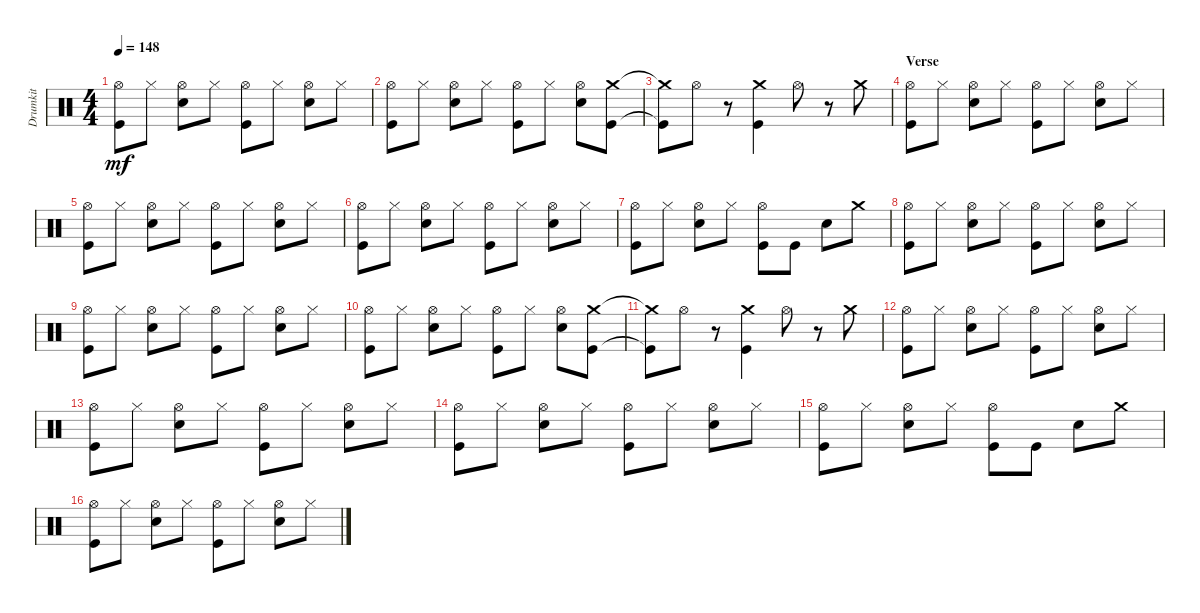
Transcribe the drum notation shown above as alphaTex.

\track ("Drumkit" "Drumkit") {instrument percussion}
\staff {score}
\articulation defaults
\ts (4 4)
\tempo 148
\clef neutral
\ks c
("Kick (hit)" "Hi-Hat (open)").8{dy mf} "Hi-Hat (closed)".8 ("Snare (hit) 2" "Hi-Hat (open)").8 "Hi-Hat (closed)".8 ("Kick (hit)" "Hi-Hat (open)").8 "Hi-Hat (closed)".8 ("Snare (hit) 2" "Hi-Hat (open)").8 "Hi-Hat (closed)".8 |
("Kick (hit)" "Hi-Hat (open)").8 "Hi-Hat (closed)".8 ("Snare (hit) 2" "Hi-Hat (open)").8 "Hi-Hat (closed)".8 ("Kick (hit)" "Hi-Hat (open)").8 "Hi-Hat (closed)".8 ("Snare (hit) 2" "Hi-Hat (open)").8 ("Crash medium (hit)" "Kick (hit)").8 |
("Crash medium (hit)"{t} "Kick (hit)"{t}).8 "Hi-Hat (open)".8 r.8 ("Crash medium (hit)" "Kick (hit)").4 "Hi-Hat (open)".8 r.8 "Crash medium (hit)".8 |
\section ("" "Verse")
("Kick (hit)" "Hi-Hat (open)").8 "Hi-Hat (closed)".8 ("Snare (hit) 2" "Hi-Hat (open)").8 "Hi-Hat (closed)".8 ("Kick (hit)" "Hi-Hat (open)").8 "Hi-Hat (closed)".8 ("Snare (hit) 2" "Hi-Hat (open)").8 "Hi-Hat (closed)".8 |
("Kick (hit)" "Hi-Hat (open)").8 "Hi-Hat (closed)".8 ("Snare (hit) 2" "Hi-Hat (open)").8 "Hi-Hat (closed)".8 ("Kick (hit)" "Hi-Hat (open)").8 "Hi-Hat (closed)".8 ("Snare (hit) 2" "Hi-Hat (open)").8 "Hi-Hat (closed)".8 |
("Kick (hit)" "Hi-Hat (open)").8 "Hi-Hat (closed)".8 ("Snare (hit) 2" "Hi-Hat (open)").8 "Hi-Hat (closed)".8 ("Kick (hit)" "Hi-Hat (open)").8 "Hi-Hat (closed)".8 ("Snare (hit) 2" "Hi-Hat (open)").8 "Hi-Hat (closed)".8 |
("Kick (hit)" "Hi-Hat (open)").8 "Hi-Hat (closed)".8 ("Snare (hit) 2" "Hi-Hat (open)").8 "Hi-Hat (closed)".8 ("Kick (hit)" "Hi-Hat (open)").8 "Kick (hit)".8 "Snare (hit) 2".8 "Crash medium (hit)".8 |
("Kick (hit)" "Hi-Hat (open)").8 "Hi-Hat (closed)".8 ("Snare (hit) 2" "Hi-Hat (open)").8 "Hi-Hat (closed)".8 ("Kick (hit)" "Hi-Hat (open)").8 "Hi-Hat (closed)".8 ("Snare (hit) 2" "Hi-Hat (open)").8 "Hi-Hat (closed)".8 |
("Kick (hit)" "Hi-Hat (open)").8 "Hi-Hat (closed)".8 ("Snare (hit) 2" "Hi-Hat (open)").8 "Hi-Hat (closed)".8 ("Kick (hit)" "Hi-Hat (open)").8 "Hi-Hat (closed)".8 ("Snare (hit) 2" "Hi-Hat (open)").8 "Hi-Hat (closed)".8 |
("Kick (hit)" "Hi-Hat (open)").8 "Hi-Hat (closed)".8 ("Snare (hit) 2" "Hi-Hat (open)").8 "Hi-Hat (closed)".8 ("Kick (hit)" "Hi-Hat (open)").8 "Hi-Hat (closed)".8 ("Snare (hit) 2" "Hi-Hat (open)").8 ("Crash medium (hit)" "Kick (hit)").8 |
("Crash medium (hit)"{t} "Kick (hit)"{t}).8 "Hi-Hat (open)".8 r.8 ("Crash medium (hit)" "Kick (hit)").4 "Hi-Hat (open)".8 r.8 "Crash medium (hit)".8 |
("Kick (hit)" "Hi-Hat (open)").8 "Hi-Hat (closed)".8 ("Snare (hit) 2" "Hi-Hat (open)").8 "Hi-Hat (closed)".8 ("Kick (hit)" "Hi-Hat (open)").8 "Hi-Hat (closed)".8 ("Snare (hit) 2" "Hi-Hat (open)").8 "Hi-Hat (closed)".8 |
("Kick (hit)" "Hi-Hat (open)").8 "Hi-Hat (closed)".8 ("Snare (hit) 2" "Hi-Hat (open)").8 "Hi-Hat (closed)".8 ("Kick (hit)" "Hi-Hat (open)").8 "Hi-Hat (closed)".8 ("Snare (hit) 2" "Hi-Hat (open)").8 "Hi-Hat (closed)".8 |
("Kick (hit)" "Hi-Hat (open)").8 "Hi-Hat (closed)".8 ("Snare (hit) 2" "Hi-Hat (open)").8 "Hi-Hat (closed)".8 ("Kick (hit)" "Hi-Hat (open)").8 "Hi-Hat (closed)".8 ("Snare (hit) 2" "Hi-Hat (open)").8 "Hi-Hat (closed)".8 |
("Kick (hit)" "Hi-Hat (open)").8 "Hi-Hat (closed)".8 ("Snare (hit) 2" "Hi-Hat (open)").8 "Hi-Hat (closed)".8 ("Kick (hit)" "Hi-Hat (open)").8 "Kick (hit)".8 "Snare (hit) 2".8 "Crash medium (hit)".8 |
("Kick (hit)" "Hi-Hat (open)").8 "Hi-Hat (closed)".8 ("Snare (hit) 2" "Hi-Hat (open)").8 "Hi-Hat (closed)".8 ("Kick (hit)" "Hi-Hat (open)").8 "Hi-Hat (closed)".8 ("Snare (hit) 2" "Hi-Hat (open)").8 "Hi-Hat (closed)".8
